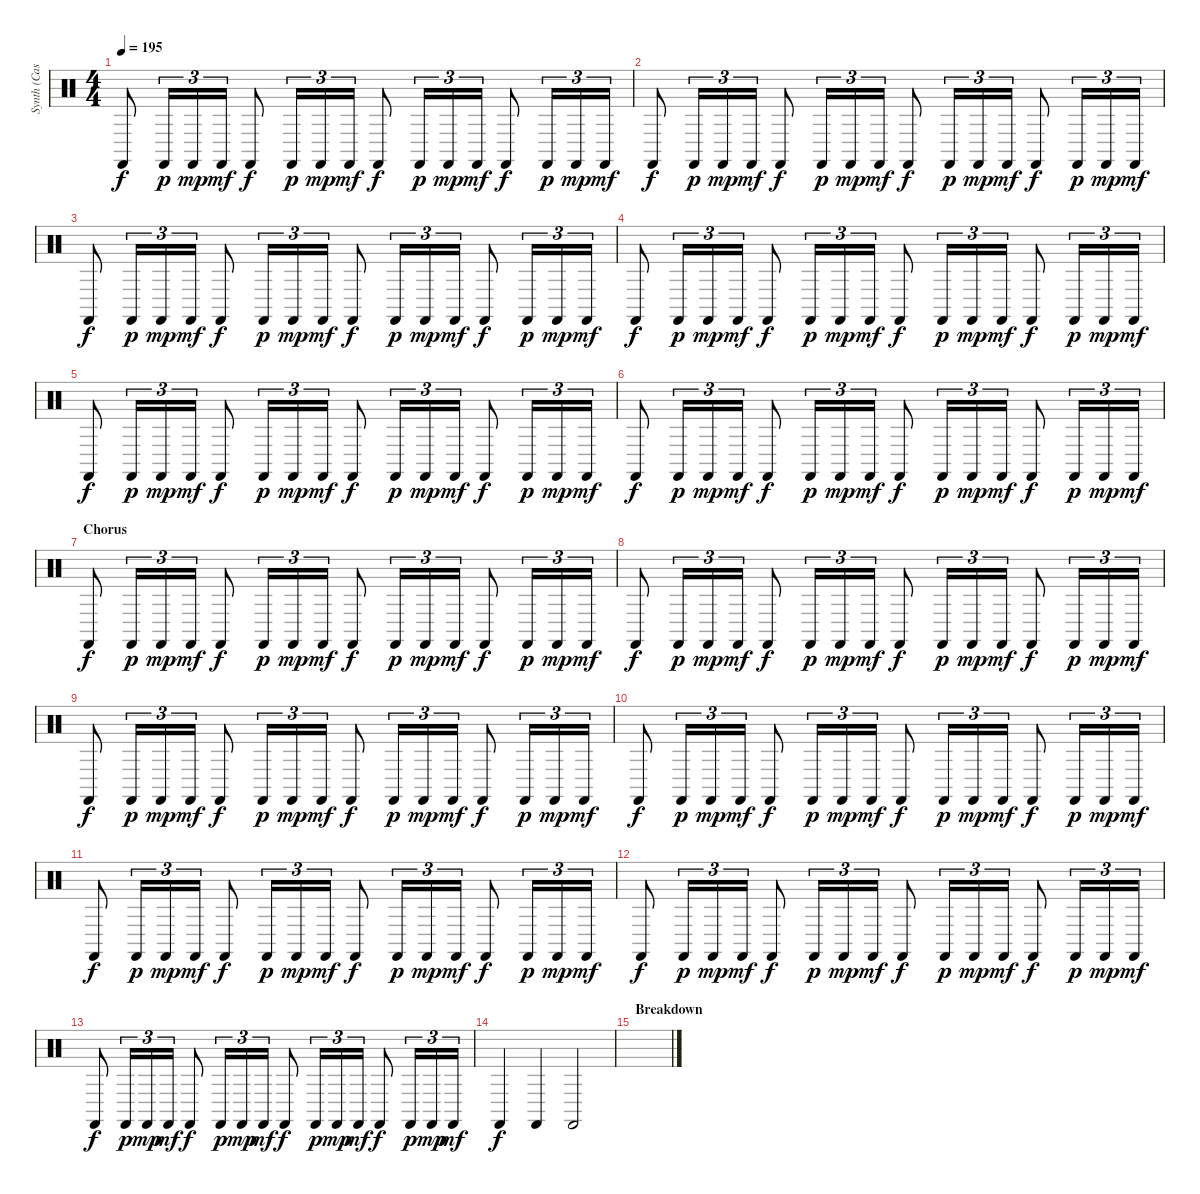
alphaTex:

\track ("Synth (Castinets)" "Synth (Cas") {instrument percussion}
\staff {score}
\articulation defaults
\ts (4 4)
\tempo 195
\clef neutral
\ks c "Castanets (hit)".8{dy f} "Castanets (hit)".16{tu (3 2) dy p} "Castanets (hit)".16{tu (3 2) dy mp} "Castanets (hit)".16{tu (3 2) dy mf} "Castanets (hit)".8{dy f} "Castanets (hit)".16{tu (3 2) dy p} "Castanets (hit)".16{tu (3 2) dy mp} "Castanets (hit)".16{tu (3 2) dy mf} "Castanets (hit)".8{dy f} "Castanets (hit)".16{tu (3 2) dy p} "Castanets (hit)".16{tu (3 2) dy mp} "Castanets (hit)".16{tu (3 2) dy mf} "Castanets (hit)".8{dy f} "Castanets (hit)".16{tu (3 2) dy p} "Castanets (hit)".16{tu (3 2) dy mp} "Castanets (hit)".16{tu (3 2) dy mf}
|
"Castanets (hit)".8{dy f} "Castanets (hit)".16{tu (3 2) dy p} "Castanets (hit)".16{tu (3 2) dy mp} "Castanets (hit)".16{tu (3 2) dy mf} "Castanets (hit)".8{dy f} "Castanets (hit)".16{tu (3 2) dy p} "Castanets (hit)".16{tu (3 2) dy mp} "Castanets (hit)".16{tu (3 2) dy mf} "Castanets (hit)".8{dy f} "Castanets (hit)".16{tu (3 2) dy p} "Castanets (hit)".16{tu (3 2) dy mp} "Castanets (hit)".16{tu (3 2) dy mf} "Castanets (hit)".8{dy f} "Castanets (hit)".16{tu (3 2) dy p} "Castanets (hit)".16{tu (3 2) dy mp} "Castanets (hit)".16{tu (3 2) dy mf} |
"Castanets (hit)".8{dy f} "Castanets (hit)".16{tu (3 2) dy p} "Castanets (hit)".16{tu (3 2) dy mp} "Castanets (hit)".16{tu (3 2) dy mf} "Castanets (hit)".8{dy f} "Castanets (hit)".16{tu (3 2) dy p} "Castanets (hit)".16{tu (3 2) dy mp} "Castanets (hit)".16{tu (3 2) dy mf} "Castanets (hit)".8{dy f} "Castanets (hit)".16{tu (3 2) dy p} "Castanets (hit)".16{tu (3 2) dy mp} "Castanets (hit)".16{tu (3 2) dy mf} "Castanets (hit)".8{dy f} "Castanets (hit)".16{tu (3 2) dy p} "Castanets (hit)".16{tu (3 2) dy mp} "Castanets (hit)".16{tu (3 2) dy mf} |
"Castanets (hit)".8{dy f} "Castanets (hit)".16{tu (3 2) dy p} "Castanets (hit)".16{tu (3 2) dy mp} "Castanets (hit)".16{tu (3 2) dy mf} "Castanets (hit)".8{dy f} "Castanets (hit)".16{tu (3 2) dy p} "Castanets (hit)".16{tu (3 2) dy mp} "Castanets (hit)".16{tu (3 2) dy mf} "Castanets (hit)".8{dy f} "Castanets (hit)".16{tu (3 2) dy p} "Castanets (hit)".16{tu (3 2) dy mp} "Castanets (hit)".16{tu (3 2) dy mf} "Castanets (hit)".8{dy f} "Castanets (hit)".16{tu (3 2) dy p} "Castanets (hit)".16{tu (3 2) dy mp} "Castanets (hit)".16{tu (3 2) dy mf} |
"Castanets (hit)".8{dy f} "Castanets (hit)".16{tu (3 2) dy p} "Castanets (hit)".16{tu (3 2) dy mp} "Castanets (hit)".16{tu (3 2) dy mf} "Castanets (hit)".8{dy f} "Castanets (hit)".16{tu (3 2) dy p} "Castanets (hit)".16{tu (3 2) dy mp} "Castanets (hit)".16{tu (3 2) dy mf} "Castanets (hit)".8{dy f} "Castanets (hit)".16{tu (3 2) dy p} "Castanets (hit)".16{tu (3 2) dy mp} "Castanets (hit)".16{tu (3 2) dy mf} "Castanets (hit)".8{dy f} "Castanets (hit)".16{tu (3 2) dy p} "Castanets (hit)".16{tu (3 2) dy mp} "Castanets (hit)".16{tu (3 2) dy mf} |
"Castanets (hit)".8{dy f} "Castanets (hit)".16{tu (3 2) dy p} "Castanets (hit)".16{tu (3 2) dy mp} "Castanets (hit)".16{tu (3 2) dy mf} "Castanets (hit)".8{dy f} "Castanets (hit)".16{tu (3 2) dy p} "Castanets (hit)".16{tu (3 2) dy mp} "Castanets (hit)".16{tu (3 2) dy mf} "Castanets (hit)".8{dy f} "Castanets (hit)".16{tu (3 2) dy p} "Castanets (hit)".16{tu (3 2) dy mp} "Castanets (hit)".16{tu (3 2) dy mf} "Castanets (hit)".8{dy f} "Castanets (hit)".16{tu (3 2) dy p} "Castanets (hit)".16{tu (3 2) dy mp} "Castanets (hit)".16{tu (3 2) dy mf} |
\section ("" "Chorus")
"Castanets (hit)".8{dy f} "Castanets (hit)".16{tu (3 2) dy p} "Castanets (hit)".16{tu (3 2) dy mp} "Castanets (hit)".16{tu (3 2) dy mf} "Castanets (hit)".8{dy f} "Castanets (hit)".16{tu (3 2) dy p} "Castanets (hit)".16{tu (3 2) dy mp} "Castanets (hit)".16{tu (3 2) dy mf} "Castanets (hit)".8{dy f} "Castanets (hit)".16{tu (3 2) dy p} "Castanets (hit)".16{tu (3 2) dy mp} "Castanets (hit)".16{tu (3 2) dy mf} "Castanets (hit)".8{dy f} "Castanets (hit)".16{tu (3 2) dy p} "Castanets (hit)".16{tu (3 2) dy mp} "Castanets (hit)".16{tu (3 2) dy mf} |
"Castanets (hit)".8{dy f} "Castanets (hit)".16{tu (3 2) dy p} "Castanets (hit)".16{tu (3 2) dy mp} "Castanets (hit)".16{tu (3 2) dy mf} "Castanets (hit)".8{dy f} "Castanets (hit)".16{tu (3 2) dy p} "Castanets (hit)".16{tu (3 2) dy mp} "Castanets (hit)".16{tu (3 2) dy mf} "Castanets (hit)".8{dy f} "Castanets (hit)".16{tu (3 2) dy p} "Castanets (hit)".16{tu (3 2) dy mp} "Castanets (hit)".16{tu (3 2) dy mf} "Castanets (hit)".8{dy f} "Castanets (hit)".16{tu (3 2) dy p} "Castanets (hit)".16{tu (3 2) dy mp} "Castanets (hit)".16{tu (3 2) dy mf} |
"Castanets (hit)".8{dy f} "Castanets (hit)".16{tu (3 2) dy p} "Castanets (hit)".16{tu (3 2) dy mp} "Castanets (hit)".16{tu (3 2) dy mf} "Castanets (hit)".8{dy f} "Castanets (hit)".16{tu (3 2) dy p} "Castanets (hit)".16{tu (3 2) dy mp} "Castanets (hit)".16{tu (3 2) dy mf} "Castanets (hit)".8{dy f} "Castanets (hit)".16{tu (3 2) dy p} "Castanets (hit)".16{tu (3 2) dy mp} "Castanets (hit)".16{tu (3 2) dy mf} "Castanets (hit)".8{dy f} "Castanets (hit)".16{tu (3 2) dy p} "Castanets (hit)".16{tu (3 2) dy mp} "Castanets (hit)".16{tu (3 2) dy mf} |
"Castanets (hit)".8{dy f} "Castanets (hit)".16{tu (3 2) dy p} "Castanets (hit)".16{tu (3 2) dy mp} "Castanets (hit)".16{tu (3 2) dy mf} "Castanets (hit)".8{dy f} "Castanets (hit)".16{tu (3 2) dy p} "Castanets (hit)".16{tu (3 2) dy mp} "Castanets (hit)".16{tu (3 2) dy mf} "Castanets (hit)".8{dy f} "Castanets (hit)".16{tu (3 2) dy p} "Castanets (hit)".16{tu (3 2) dy mp} "Castanets (hit)".16{tu (3 2) dy mf} "Castanets (hit)".8{dy f} "Castanets (hit)".16{tu (3 2) dy p} "Castanets (hit)".16{tu (3 2) dy mp} "Castanets (hit)".16{tu (3 2) dy mf} |
"Castanets (hit)".8{dy f} "Castanets (hit)".16{tu (3 2) dy p} "Castanets (hit)".16{tu (3 2) dy mp} "Castanets (hit)".16{tu (3 2) dy mf} "Castanets (hit)".8{dy f} "Castanets (hit)".16{tu (3 2) dy p} "Castanets (hit)".16{tu (3 2) dy mp} "Castanets (hit)".16{tu (3 2) dy mf} "Castanets (hit)".8{dy f} "Castanets (hit)".16{tu (3 2) dy p} "Castanets (hit)".16{tu (3 2) dy mp} "Castanets (hit)".16{tu (3 2) dy mf} "Castanets (hit)".8{dy f} "Castanets (hit)".16{tu (3 2) dy p} "Castanets (hit)".16{tu (3 2) dy mp} "Castanets (hit)".16{tu (3 2) dy mf} |
"Castanets (hit)".8{dy f} "Castanets (hit)".16{tu (3 2) dy p} "Castanets (hit)".16{tu (3 2) dy mp} "Castanets (hit)".16{tu (3 2) dy mf} "Castanets (hit)".8{dy f} "Castanets (hit)".16{tu (3 2) dy p} "Castanets (hit)".16{tu (3 2) dy mp} "Castanets (hit)".16{tu (3 2) dy mf} "Castanets (hit)".8{dy f} "Castanets (hit)".16{tu (3 2) dy p} "Castanets (hit)".16{tu (3 2) dy mp} "Castanets (hit)".16{tu (3 2) dy mf} "Castanets (hit)".8{dy f} "Castanets (hit)".16{tu (3 2) dy p} "Castanets (hit)".16{tu (3 2) dy mp} "Castanets (hit)".16{tu (3 2) dy mf} |
"Castanets (hit)".8{dy f} "Castanets (hit)".16{tu (3 2) dy p} "Castanets (hit)".16{tu (3 2) dy mp} "Castanets (hit)".16{tu (3 2) dy mf} "Castanets (hit)".8{dy f} "Castanets (hit)".16{tu (3 2) dy p} "Castanets (hit)".16{tu (3 2) dy mp} "Castanets (hit)".16{tu (3 2) dy mf} "Castanets (hit)".8{dy f} "Castanets (hit)".16{tu (3 2) dy p} "Castanets (hit)".16{tu (3 2) dy mp} "Castanets (hit)".16{tu (3 2) dy mf} "Castanets (hit)".8{dy f} "Castanets (hit)".16{tu (3 2) dy p} "Castanets (hit)".16{tu (3 2) dy mp} "Castanets (hit)".16{tu (3 2) dy mf} |
"Castanets (hit)".4{dy f} "Castanets (hit)".4 "Castanets (hit)".2 |
\section ("" "Breakdown")
